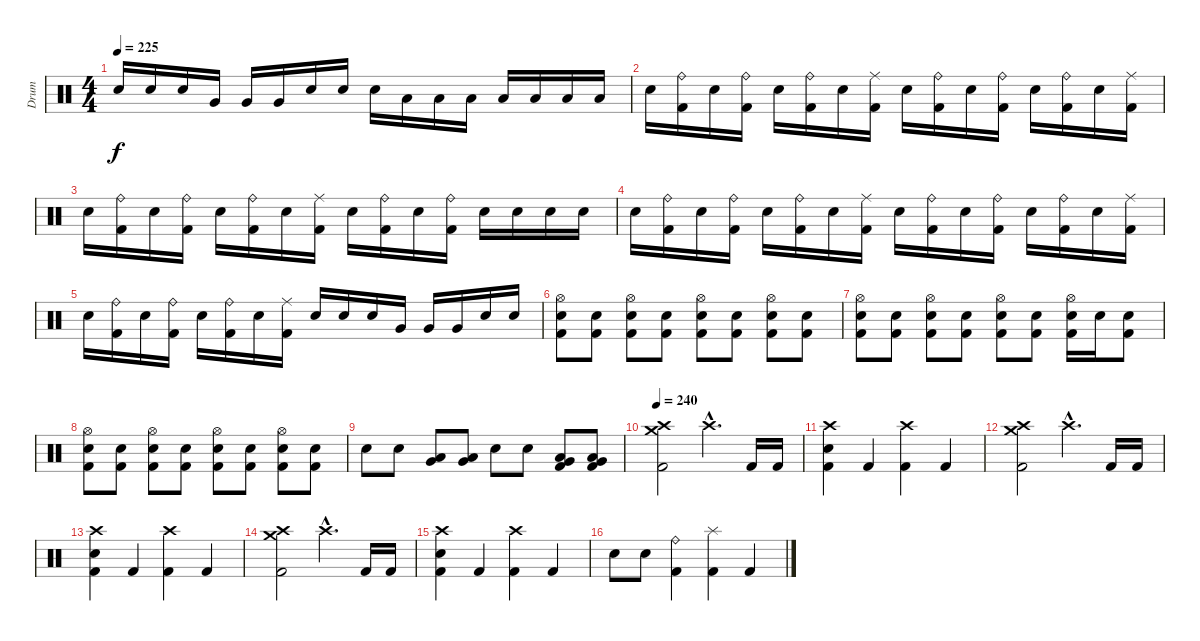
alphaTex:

\track ("Drum" "Drum") {instrument percussion}
\staff {score}
\articulation defaults
\ts (4 4)
\tempo 225
\clef neutral
\ks c "Electric Snare (hit)".16{dy f} "Electric Snare (hit)".16 "Electric Snare (hit)".16 "Very Low Tom (hit)".16 "Very Low Tom (hit)".16 "Very Low Tom (hit)".16 "Electric Snare (hit)".16 "Electric Snare (hit)".16 "Electric Snare (hit)".16 "Low Tom (hit)".16 "Low Tom (hit)".16 "Low Tom (hit)".16 "Low Floor Tom (hit)".16 "Low Floor Tom (hit)".16 "Low Floor Tom (hit)".16 "Low Floor Tom (hit)".16
|
"Electric Snare (hit)".16 ("Ride (bell)" "Kick (hit) 2").16 "Electric Snare (hit)".16 ("Ride (bell)" "Kick (hit) 2").16 "Electric Snare (hit)".16 ("Ride (bell)" "Kick (hit) 2").16 "Electric Snare (hit)".16 ("Ride (middle)" "Kick (hit) 2").16 "Electric Snare (hit)".16 ("Ride (bell)" "Kick (hit) 2").16 "Electric Snare (hit)".16 ("Ride (bell)" "Kick (hit) 2").16 "Electric Snare (hit)".16 ("Ride (bell)" "Kick (hit) 2").16 "Electric Snare (hit)".16 ("Ride (middle)" "Kick (hit) 2").16 |
"Electric Snare (hit)".16 ("Ride (bell)" "Kick (hit) 2").16 "Electric Snare (hit)".16 ("Ride (bell)" "Kick (hit) 2").16 "Electric Snare (hit)".16 ("Ride (bell)" "Kick (hit) 2").16 "Electric Snare (hit)".16 ("Ride (middle)" "Kick (hit) 2").16 "Electric Snare (hit)".16 ("Ride (bell)" "Kick (hit) 2").16 "Electric Snare (hit)".16 ("Ride (bell)" "Kick (hit) 2").16 "Electric Snare (hit)".16 "Electric Snare (hit)".16 "Electric Snare (hit)".16 "Electric Snare (hit)".16 |
"Electric Snare (hit)".16 ("Ride (bell)" "Kick (hit) 2").16 "Electric Snare (hit)".16 ("Ride (bell)" "Kick (hit) 2").16 "Electric Snare (hit)".16 ("Ride (bell)" "Kick (hit) 2").16 "Electric Snare (hit)".16 ("Ride (middle)" "Kick (hit) 2").16 "Electric Snare (hit)".16 ("Ride (bell)" "Kick (hit) 2").16 "Electric Snare (hit)".16 ("Ride (bell)" "Kick (hit) 2").16 "Electric Snare (hit)".16 ("Ride (bell)" "Kick (hit) 2").16 "Electric Snare (hit)".16 ("Ride (middle)" "Kick (hit) 2").16 |
"Electric Snare (hit)".16 ("Ride (bell)" "Kick (hit) 2").16 "Electric Snare (hit)".16 ("Ride (bell)" "Kick (hit) 2").16 "Electric Snare (hit)".16 ("Ride (bell)" "Kick (hit) 2").16 "Electric Snare (hit)".16 ("Ride (middle)" "Kick (hit) 2").16 "Electric Snare (hit)".16 "Electric Snare (hit)".16 "Electric Snare (hit)".16 "Very Low Tom (hit)".16 "Very Low Tom (hit)".16 "Very Low Tom (hit)".16 "Electric Snare (hit)".16 "Electric Snare (hit)".16 |
("Hi-Hat (open)" "Electric Snare (hit)" "Kick (hit) 2").8 ("Electric Snare (hit)" "Kick (hit) 2").8 ("Hi-Hat (open)" "Electric Snare (hit)" "Kick (hit) 2").8 ("Electric Snare (hit)" "Kick (hit) 2").8 ("Hi-Hat (open)" "Electric Snare (hit)" "Kick (hit) 2").8 ("Electric Snare (hit)" "Kick (hit) 2").8 ("Hi-Hat (open)" "Electric Snare (hit)" "Kick (hit) 2").8 ("Electric Snare (hit)" "Kick (hit) 2").8 |
("Hi-Hat (open)" "Electric Snare (hit)" "Kick (hit) 2").8 ("Electric Snare (hit)" "Kick (hit) 2").8 ("Hi-Hat (open)" "Electric Snare (hit)" "Kick (hit) 2").8 ("Electric Snare (hit)" "Kick (hit) 2").8 ("Hi-Hat (open)" "Electric Snare (hit)" "Kick (hit) 2").8 ("Electric Snare (hit)" "Kick (hit) 2").8 ("Hi-Hat (open)" "Electric Snare (hit)" "Kick (hit) 2").16 "Electric Snare (hit)".16 ("Electric Snare (hit)" "Kick (hit) 2").8 |
("Hi-Hat (open)" "Electric Snare (hit)" "Kick (hit) 2").8 ("Electric Snare (hit)" "Kick (hit) 2").8 ("Hi-Hat (open)" "Electric Snare (hit)" "Kick (hit) 2").8 ("Electric Snare (hit)" "Kick (hit) 2").8 ("Hi-Hat (open)" "Electric Snare (hit)" "Kick (hit) 2").8 ("Electric Snare (hit)" "Kick (hit) 2").8 ("Hi-Hat (open)" "Electric Snare (hit)" "Kick (hit) 2").8 ("Electric Snare (hit)" "Kick (hit) 2").8 |
"Electric Snare (hit)".8 "Electric Snare (hit)".8 ("Very Low Tom (hit)" "Low Tom (hit)").8 ("Very Low Tom (hit)" "Low Tom (hit)").8 "Electric Snare (hit)".8 "Electric Snare (hit)".8 ("Low Floor Tom (hit)" "Very Low Tom (hit)" "Kick (hit) 2").8 ("Low Floor Tom (hit)" "Very Low Tom (hit)" "Kick (hit) 2").8 |
\tempo 240
("Crash medium (hit)" "Crash high (hit)" "Kick (hit) 2").2 "Crash high (hit)"{hac}.4{d} "Kick (hit) 2".16 "Kick (hit) 2".16 |
("Crash high (hit)" "Electric Snare (hit)" "Kick (hit) 2").4 "Kick (hit) 2".4 ("Crash high (hit)" "Kick (hit) 2").4 "Kick (hit) 2".4 |
("Crash medium (hit)" "Crash high (hit)" "Kick (hit) 2").2 "Crash high (hit)"{hac}.4{d} "Kick (hit) 2".16 "Kick (hit) 2".16 |
("Crash high (hit)" "Electric Snare (hit)" "Kick (hit) 2").4 "Kick (hit) 2".4 ("Crash high (hit)" "Kick (hit) 2").4 "Kick (hit) 2".4 |
("Crash medium (hit)" "Crash high (hit)" "Kick (hit) 2").2 "Crash high (hit)"{hac}.4{d} "Kick (hit) 2".16 "Kick (hit) 2".16 |
("Crash high (hit)" "Electric Snare (hit)" "Kick (hit) 2").4 "Kick (hit) 2".4 ("Crash high (hit)" "Kick (hit) 2").4 "Kick (hit) 2".4 |
"Electric Snare (hit)".8 "Electric Snare (hit)".8 ("Ride (bell)" "Kick (hit) 2").4 ("Splash (hit)" "Kick (hit) 2").4 "Kick (hit) 2".4
